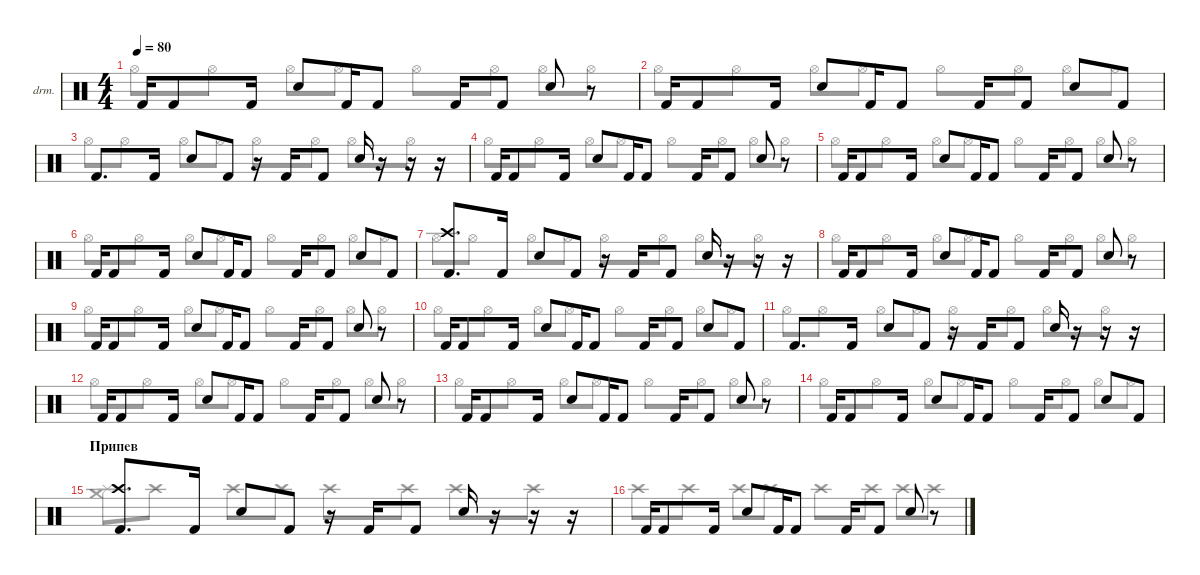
\defaultSystemsLayout 4
\hideDynamics
\bracketExtendMode nobrackets
\firstSystemTrackNameOrientation horizontal
\otherSystemsTrackNameOrientation horizontal
\track ("Drumkit" "drm.") {instrument percussion}
\staff {score}
\articulation defaults
\voice
\ts (4 4)
\tempo 80
\clef neutral
\ks c "Kick (hit) 2".16{dy mf beam Up} "Kick (hit) 2".8{beam Up} "Kick (hit) 2".16{beam Up} "Snare (hit) 2".8{beam Up} "Kick (hit) 2".16{beam Up} "Kick (hit) 2".8{beam Up} "Kick (hit) 2".16{beam Up} "Kick (hit) 2".8{beam Up} "Snare (hit) 2".8{beam Up}
r.8{beam Up} |
"Kick (hit) 2".16{beam Up} "Kick (hit) 2".8{beam Up} "Kick (hit) 2".16{beam Up} "Snare (hit) 2".8{beam Up} "Kick (hit) 2".16{beam Up} "Kick (hit) 2".8{beam Up} "Kick (hit) 2".16{beam Up} "Kick (hit) 2".8{beam Up} "Snare (hit) 2".8{beam Up} "Kick (hit) 2".8{beam Up} |
"Kick (hit) 2".8{d beam Up} "Kick (hit) 2".16{beam Up} "Snare (hit) 2".8{beam Up} "Kick (hit) 2".8{beam Up} r.16{beam Up} "Kick (hit) 2".16{beam Up} "Kick (hit) 2".8{beam Up} "Snare (hit) 2".16{beam Up} r.16{beam Up} r.16{beam Up} r.16{beam Up} |
"Kick (hit) 2".16{beam Up} "Kick (hit) 2".8{beam Up} "Kick (hit) 2".16{beam Up} "Snare (hit) 2".8{beam Up} "Kick (hit) 2".16{beam Up} "Kick (hit) 2".8{beam Up} "Kick (hit) 2".16{beam Up} "Kick (hit) 2".8{beam Up} "Snare (hit) 2".8{beam Up} r.8{beam Up} |
"Kick (hit) 2".16{beam Up} "Kick (hit) 2".8{beam Up} "Kick (hit) 2".16{beam Up} "Snare (hit) 2".8{beam Up} "Kick (hit) 2".16{beam Up} "Kick (hit) 2".8{beam Up} "Kick (hit) 2".16{beam Up} "Kick (hit) 2".8{beam Up} "Snare (hit) 2".8{beam Up} r.8{beam Up} |
"Kick (hit) 2".16{beam Up} "Kick (hit) 2".8{beam Up} "Kick (hit) 2".16{beam Up} "Snare (hit) 2".8{beam Up} "Kick (hit) 2".16{beam Up} "Kick (hit) 2".8{beam Up} "Kick (hit) 2".16{beam Up} "Kick (hit) 2".8{beam Up} "Snare (hit) 2".8{beam Up} "Kick (hit) 2".8{beam Up} |
("Kick (hit) 2" "Crash high (hit)").8{d beam Up} "Kick (hit) 2".16{beam Up} "Snare (hit) 2".8{beam Up} "Kick (hit) 2".8{beam Up} r.16{beam Up} "Kick (hit) 2".16{beam Up} "Kick (hit) 2".8{beam Up} "Snare (hit) 2".16{beam Up} r.16{beam Up} r.16{beam Up} r.16{beam Up} |
"Kick (hit) 2".16{beam Up} "Kick (hit) 2".8{beam Up} "Kick (hit) 2".16{beam Up} "Snare (hit) 2".8{beam Up} "Kick (hit) 2".16{beam Up} "Kick (hit) 2".8{beam Up} "Kick (hit) 2".16{beam Up} "Kick (hit) 2".8{beam Up} "Snare (hit) 2".8{beam Up} r.8{beam Up} |
"Kick (hit) 2".16{beam Up} "Kick (hit) 2".8{beam Up} "Kick (hit) 2".16{beam Up} "Snare (hit) 2".8{beam Up} "Kick (hit) 2".16{beam Up} "Kick (hit) 2".8{beam Up} "Kick (hit) 2".16{beam Up} "Kick (hit) 2".8{beam Up} "Snare (hit) 2".8{beam Up} r.8{beam Up} |
"Kick (hit) 2".16{beam Up} "Kick (hit) 2".8{beam Up} "Kick (hit) 2".16{beam Up} "Snare (hit) 2".8{beam Up} "Kick (hit) 2".16{beam Up} "Kick (hit) 2".8{beam Up} "Kick (hit) 2".16{beam Up} "Kick (hit) 2".8{beam Up} "Snare (hit) 2".8{beam Up} "Kick (hit) 2".8{beam Up} |
"Kick (hit) 2".8{d beam Up} "Kick (hit) 2".16{beam Up} "Snare (hit) 2".8{beam Up} "Kick (hit) 2".8{beam Up} r.16{beam Up} "Kick (hit) 2".16{beam Up} "Kick (hit) 2".8{beam Up} "Snare (hit) 2".16{beam Up} r.16{beam Up} r.16{beam Up} r.16{beam Up} |
"Kick (hit) 2".16{beam Up} "Kick (hit) 2".8{beam Up} "Kick (hit) 2".16{beam Up} "Snare (hit) 2".8{beam Up} "Kick (hit) 2".16{beam Up} "Kick (hit) 2".8{beam Up} "Kick (hit) 2".16{beam Up} "Kick (hit) 2".8{beam Up} "Snare (hit) 2".8{beam Up} r.8{beam Up} |
"Kick (hit) 2".16{beam Up} "Kick (hit) 2".8{beam Up} "Kick (hit) 2".16{beam Up} "Snare (hit) 2".8{beam Up} "Kick (hit) 2".16{beam Up} "Kick (hit) 2".8{beam Up} "Kick (hit) 2".16{beam Up} "Kick (hit) 2".8{beam Up} "Snare (hit) 2".8{beam Up} r.8{beam Up} |
"Kick (hit) 2".16{beam Up} "Kick (hit) 2".8{beam Up} "Kick (hit) 2".16{beam Up} "Snare (hit) 2".8{beam Up} "Kick (hit) 2".16{beam Up} "Kick (hit) 2".8{beam Up} "Kick (hit) 2".16{beam Up} "Kick (hit) 2".8{beam Up} "Snare (hit) 2".8{beam Up} "Kick (hit) 2".8{beam Up} |
\section ("" "Припев")
("Kick (hit) 2" "Crash high (hit)").8{d beam Up} "Kick (hit) 2".16{beam Up} "Snare (hit) 2".8{beam Up} "Kick (hit) 2".8{beam Up} r.16{beam Up} "Kick (hit) 2".16{beam Up} "Kick (hit) 2".8{beam Up} "Snare (hit) 2".16{beam Up} r.16{beam Up} r.16{beam Up} r.16{beam Up} |
"Kick (hit) 2".16{beam Up} "Kick (hit) 2".8{beam Up} "Kick (hit) 2".16{beam Up} "Snare (hit) 2".8{beam Up} "Kick (hit) 2".16{beam Up} "Kick (hit) 2".8{beam Up} "Kick (hit) 2".16{beam Up} "Kick (hit) 2".8{beam Up} "Snare (hit) 2".8{beam Up} r.8{beam Up}
\voice
\clef neutral
\ottava regular
\simile none
\ks c "Hi-Hat (open)".8{dy mf beam Down} "Hi-Hat (open)".8{beam Down} "Hi-Hat (open)".8{beam Down} "Hi-Hat (open)".8{beam Down} "Hi-Hat (open)".8{beam Down} "Hi-Hat (open)".8{beam Down} "Hi-Hat (open)".8{beam Down} "Hi-Hat (open)".8{beam Down}
|
"Hi-Hat (open)".8{beam Down} "Hi-Hat (open)".8{beam Down} "Hi-Hat (open)".8{beam Down} "Hi-Hat (open)".8{beam Down} "Hi-Hat (open)".8{beam Down} "Hi-Hat (open)".8{beam Down} "Hi-Hat (open)".8{beam Down} "Hi-Hat (open)".8{beam Down} |
"Hi-Hat (open)".8{beam Down} "Hi-Hat (open)".8{beam Down} "Hi-Hat (open)".8{beam Down} "Hi-Hat (open)".8{beam Down} "Hi-Hat (open)".8{beam Down} "Hi-Hat (open)".8{beam Down} "Hi-Hat (open)".8{beam Down} "Hi-Hat (open)".8{beam Down} |
"Hi-Hat (open)".8{beam Down} "Hi-Hat (open)".8{beam Down} "Hi-Hat (open)".8{beam Down} "Hi-Hat (open)".8{beam Down} "Hi-Hat (open)".8{beam Down} "Hi-Hat (open)".8{beam Down} "Hi-Hat (open)".8{beam Down} "Hi-Hat (open)".8{beam Down} |
"Hi-Hat (open)".8{beam Down} "Hi-Hat (open)".8{beam Down} "Hi-Hat (open)".8{beam Down} "Hi-Hat (open)".8{beam Down} "Hi-Hat (open)".8{beam Down} "Hi-Hat (open)".8{beam Down} "Hi-Hat (open)".8{beam Down} "Hi-Hat (open)".8{beam Down} |
"Hi-Hat (open)".8{beam Down} "Hi-Hat (open)".8{beam Down} "Hi-Hat (open)".8{beam Down} "Hi-Hat (open)".8{beam Down} "Hi-Hat (open)".8{beam Down} "Hi-Hat (open)".8{beam Down} "Hi-Hat (open)".8{beam Down} "Hi-Hat (open)".8{beam Down} |
"Hi-Hat (open)".8{beam Down} "Hi-Hat (open)".8{beam Down} "Hi-Hat (open)".8{beam Down} "Hi-Hat (open)".8{beam Down} "Hi-Hat (open)".8{beam Down} "Hi-Hat (open)".8{beam Down} "Hi-Hat (open)".8{beam Down} "Hi-Hat (open)".8{beam Down} |
"Hi-Hat (open)".8{beam Down} "Hi-Hat (open)".8{beam Down} "Hi-Hat (open)".8{beam Down} "Hi-Hat (open)".8{beam Down} "Hi-Hat (open)".8{beam Down} "Hi-Hat (open)".8{beam Down} "Hi-Hat (open)".8{beam Down} "Hi-Hat (open)".8{beam Down} |
"Hi-Hat (open)".8{beam Down} "Hi-Hat (open)".8{beam Down} "Hi-Hat (open)".8{beam Down} "Hi-Hat (open)".8{beam Down} "Hi-Hat (open)".8{beam Down} "Hi-Hat (open)".8{beam Down} "Hi-Hat (open)".8{beam Down} "Hi-Hat (open)".8{beam Down} |
"Hi-Hat (open)".8{beam Down} "Hi-Hat (open)".8{beam Down} "Hi-Hat (open)".8{beam Down} "Hi-Hat (open)".8{beam Down} "Hi-Hat (open)".8{beam Down} "Hi-Hat (open)".8{beam Down} "Hi-Hat (open)".8{beam Down} "Hi-Hat (open)".8{beam Down} |
"Hi-Hat (open)".8{beam Down} "Hi-Hat (open)".8{beam Down} "Hi-Hat (open)".8{beam Down} "Hi-Hat (open)".8{beam Down} "Hi-Hat (open)".8{beam Down} "Hi-Hat (open)".8{beam Down} "Hi-Hat (open)".8{beam Down} "Hi-Hat (open)".8{beam Down} |
"Hi-Hat (open)".8{beam Down} "Hi-Hat (open)".8{beam Down} "Hi-Hat (open)".8{beam Down} "Hi-Hat (open)".8{beam Down} "Hi-Hat (open)".8{beam Down} "Hi-Hat (open)".8{beam Down} "Hi-Hat (open)".8{beam Down} "Hi-Hat (open)".8{beam Down} |
"Hi-Hat (open)".8{beam Down} "Hi-Hat (open)".8{beam Down} "Hi-Hat (open)".8{beam Down} "Hi-Hat (open)".8{beam Down} "Hi-Hat (open)".8{beam Down} "Hi-Hat (open)".8{beam Down} "Hi-Hat (open)".8{beam Down} "Hi-Hat (open)".8{beam Down} |
"Hi-Hat (open)".8{beam Down} "Hi-Hat (open)".8{beam Down} "Hi-Hat (open)".8{beam Down} "Hi-Hat (open)".8{beam Down} "Hi-Hat (open)".8{beam Down} "Hi-Hat (open)".8{beam Down} "Hi-Hat (open)".8{beam Down} "Hi-Hat (open)".8{beam Down} |
("Splash (hit)" "Crash medium (hit)").8{beam Down} "Crash high (hit)".8{beam Down} "Crash high (hit)".8{beam Down} "Crash high (hit)".8{beam Down} "Crash high (hit)".8{beam Down} "Crash high (hit)".8{beam Down} "Crash high (hit)".8{beam Down} "Crash high (hit)".8{beam Down} |
"Crash high (hit)".8{beam Down} "Crash high (hit)".8{beam Down} "Crash high (hit)".8{beam Down} "Crash high (hit)".8{beam Down} "Crash high (hit)".8{beam Down} "Crash high (hit)".8{beam Down} "Crash high (hit)".8{beam Down} "Crash high (hit)".8{beam Down}
